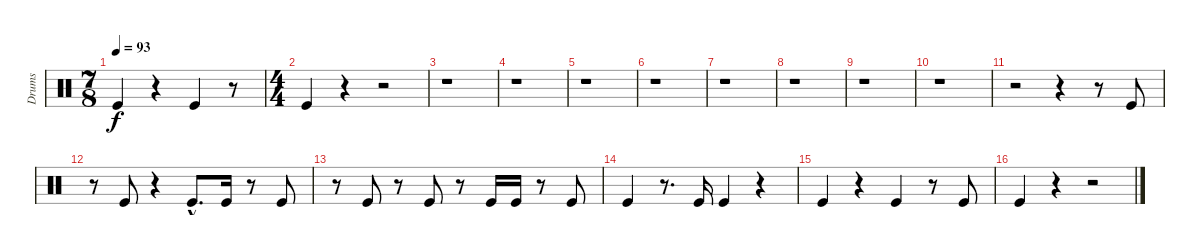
\track ("Drums" "Drums") {instrument percussion}
\staff {score}
\articulation defaults
\ts (7 8)
\tempo 93
\clef neutral
\ks c "Kick (hit)".4{dy f}
r.4 "Kick (hit)".4 r.8 |
\ts (4 4)
"Kick (hit)".4 r.4 r.2 |
r.1 |
r.1 |
r.1 |
r.1 |
r.1 |
r.1 |
r.1 |
r.1 |
r.2 r.4 r.8 "Kick (hit)".8 |
r.8 "Kick (hit)".8 r.4 "Kick (hit)"{hac}.8{d} "Kick (hit)".16 r.8 "Kick (hit)".8 |
r.8 "Kick (hit)".8 r.8 "Kick (hit)".8 r.8 "Kick (hit)".16 "Kick (hit)".16 r.8 "Kick (hit)".8 |
"Kick (hit)".4 r.8{d} "Kick (hit)".16 "Kick (hit)".4 r.4 |
"Kick (hit)".4 r.4 "Kick (hit)".4 r.8 "Kick (hit)".8 |
"Kick (hit)".4 r.4 r.2
